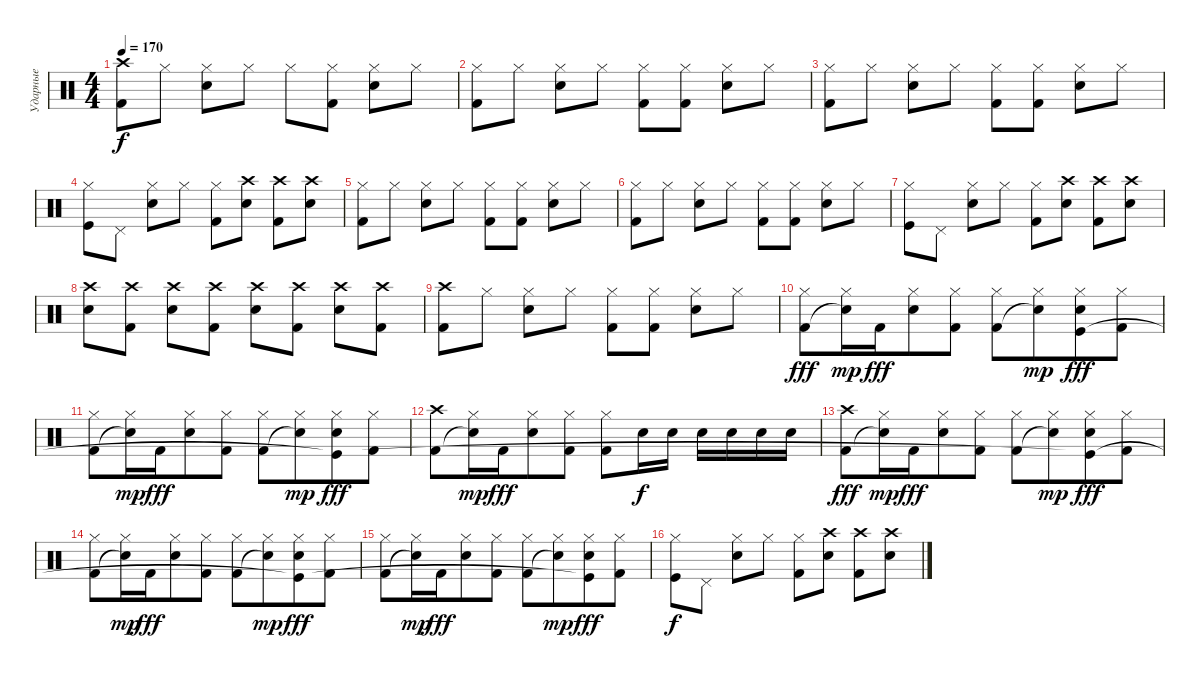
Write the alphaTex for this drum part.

\track ("Ударные" "Ударные") {instrument percussion}
\staff {score}
\articulation defaults
\ts (4 4)
\tempo 170
\clef neutral
\ks c
("Crash high (hit)" "Kick (hit) 2").8{dy f} "Hi-Hat (closed)".8 ("Hi-Hat (closed)" "Electric Snare (hit)").8 "Hi-Hat (closed)".8 "Hi-Hat (closed)".8 ("Hi-Hat (closed)" "Kick (hit) 2").8 ("Hi-Hat (closed)" "Electric Snare (hit)").8 "Hi-Hat (closed)".8 |
("Hi-Hat (closed)" "Kick (hit) 2").8 "Hi-Hat (closed)".8 ("Hi-Hat (closed)" "Electric Snare (hit)").8 "Hi-Hat (closed)".8 ("Hi-Hat (closed)" "Kick (hit) 2").8 ("Hi-Hat (closed)" "Kick (hit) 2").8 ("Hi-Hat (closed)" "Electric Snare (hit)").8 "Hi-Hat (closed)".8 |
("Hi-Hat (closed)" "Kick (hit) 2").8 "Hi-Hat (closed)".8 ("Hi-Hat (closed)" "Electric Snare (hit)").8 "Hi-Hat (closed)".8 ("Hi-Hat (closed)" "Kick (hit) 2").8 ("Hi-Hat (closed)" "Kick (hit) 2").8 ("Hi-Hat (closed)" "Electric Snare (hit)").8 "Hi-Hat (closed)".8 |
("Kick (hit)" "Hi-Hat (closed)").8 "Pedal Hi-Hat (hit)".8 ("Electric Snare (hit)" "Hi-Hat (closed)").8 "Hi-Hat (closed)".8 ("Kick (hit) 2" "Hi-Hat (closed)").8 ("Electric Snare (hit)" "Crash high (hit)").8 ("Kick (hit) 2" "Crash high (hit)").8 ("Electric Snare (hit)" "Crash high (hit)").8 |
("Hi-Hat (closed)" "Kick (hit) 2").8 "Hi-Hat (closed)".8 ("Hi-Hat (closed)" "Electric Snare (hit)").8 "Hi-Hat (closed)".8 ("Hi-Hat (closed)" "Kick (hit) 2").8 ("Hi-Hat (closed)" "Kick (hit) 2").8 ("Hi-Hat (closed)" "Electric Snare (hit)").8 "Hi-Hat (closed)".8 |
("Hi-Hat (closed)" "Kick (hit) 2").8 "Hi-Hat (closed)".8 ("Hi-Hat (closed)" "Electric Snare (hit)").8 "Hi-Hat (closed)".8 ("Hi-Hat (closed)" "Kick (hit) 2").8 ("Hi-Hat (closed)" "Kick (hit) 2").8 ("Hi-Hat (closed)" "Electric Snare (hit)").8 "Hi-Hat (closed)".8 |
("Kick (hit)" "Hi-Hat (closed)").8 "Pedal Hi-Hat (hit)".8 ("Electric Snare (hit)" "Hi-Hat (closed)").8 "Hi-Hat (closed)".8 ("Kick (hit) 2" "Hi-Hat (closed)").8 ("Electric Snare (hit)" "Crash high (hit)").8 ("Kick (hit) 2" "Crash high (hit)").8 ("Electric Snare (hit)" "Crash high (hit)").8 |
("Electric Snare (hit)" "Crash high (hit)").8 ("Kick (hit) 2" "Crash high (hit)").8 ("Electric Snare (hit)" "Crash high (hit)").8 ("Kick (hit) 2" "Crash high (hit)").8 ("Electric Snare (hit)" "Crash high (hit)").8 ("Kick (hit) 2" "Crash high (hit)").8 ("Electric Snare (hit)" "Crash high (hit)").8 ("Kick (hit) 2" "Crash high (hit)").8 |
("Crash high (hit)" "Kick (hit) 2").8 "Hi-Hat (closed)".8 ("Hi-Hat (closed)" "Electric Snare (hit)").8 "Hi-Hat (closed)".8 ("Hi-Hat (closed)" "Kick (hit) 2").8 ("Hi-Hat (closed)" "Kick (hit) 2").8 ("Hi-Hat (closed)" "Electric Snare (hit)").8 "Hi-Hat (closed)".8 |
("Hi-Hat (closed)" "Kick (hit) 2").8{dy fff} ("Hi-Hat (closed)" "Snare (hit)"{t}).16{dy mp} "Kick (hit) 2".16{dy fff beam merge} ("Hi-Hat (closed)" "Electric Snare (hit)").8 ("Hi-Hat (closed)" "Kick (hit) 2").8 ("Hi-Hat (closed)" "Kick (hit) 2").8 ("Hi-Hat (closed)" "Snare (hit)"{t}).8{dy mp beam merge} ("Hi-Hat (closed)" "Electric Snare (hit)" "Kick (hit)").8{dy fff} ("Hi-Hat (closed)" "Kick (hit) 2").8 |
("Hi-Hat (closed)" "Kick (hit) 2").8 ("Hi-Hat (closed)" "Snare (hit)"{t}).16{dy mp} "Kick (hit) 2".16{dy fff beam merge} ("Hi-Hat (closed)" "Electric Snare (hit)").8 ("Hi-Hat (closed)" "Kick (hit) 2").8 ("Hi-Hat (closed)" "Kick (hit) 2").8 ("Hi-Hat (closed)" "Snare (hit)"{t}).8{dy mp beam merge} ("Hi-Hat (closed)" "Electric Snare (hit)" "Kick (hit)"{t}).8{dy fff} ("Hi-Hat (closed)" "Kick (hit) 2").8 |
("Crash high (hit)" "Kick (hit) 2").8 ("Hi-Hat (closed)" "Snare (hit)"{t}).16{dy mp} "Kick (hit) 2".16{dy fff beam merge} ("Hi-Hat (closed)" "Electric Snare (hit)").8 ("Hi-Hat (closed)" "Kick (hit) 2").8 ("Hi-Hat (closed)" "Kick (hit) 2").8 "Electric Snare (hit)".16{dy f} "Electric Snare (hit)".16 "Electric Snare (hit)".16 "Electric Snare (hit)".16 "Electric Snare (hit)".16 "Electric Snare (hit)".16 |
("Crash high (hit)" "Kick (hit) 2").8{dy fff} ("Hi-Hat (closed)" "Snare (hit)"{t}).16{dy mp} "Kick (hit) 2".16{dy fff beam merge} ("Hi-Hat (closed)" "Electric Snare (hit)").8 ("Hi-Hat (closed)" "Kick (hit) 2").8 ("Hi-Hat (closed)" "Kick (hit) 2").8 ("Hi-Hat (closed)" "Snare (hit)"{t}).8{dy mp beam merge} ("Hi-Hat (closed)" "Electric Snare (hit)" "Kick (hit)"{t}).8{dy fff} ("Hi-Hat (closed)" "Kick (hit) 2").8 |
("Hi-Hat (closed)" "Kick (hit) 2").8 ("Hi-Hat (closed)" "Snare (hit)"{t}).16{dy mp} "Kick (hit) 2".16{dy fff beam merge} ("Hi-Hat (closed)" "Electric Snare (hit)").8 ("Hi-Hat (closed)" "Kick (hit) 2").8 ("Hi-Hat (closed)" "Kick (hit) 2").8 ("Hi-Hat (closed)" "Snare (hit)"{t}).8{dy mp beam merge} ("Hi-Hat (closed)" "Electric Snare (hit)" "Kick (hit)"{t}).8{dy fff} ("Hi-Hat (closed)" "Kick (hit) 2").8 |
("Hi-Hat (closed)" "Kick (hit) 2").8 ("Hi-Hat (closed)" "Snare (hit)"{t}).16{dy mp} "Kick (hit) 2".16{dy fff beam merge} ("Hi-Hat (closed)" "Electric Snare (hit)").8 ("Hi-Hat (closed)" "Kick (hit) 2").8 ("Hi-Hat (closed)" "Kick (hit) 2").8 ("Hi-Hat (closed)" "Snare (hit)"{t}).8{dy mp beam merge} ("Hi-Hat (closed)" "Electric Snare (hit)" "Kick (hit)"{t}).8{dy fff} ("Hi-Hat (closed)" "Kick (hit) 2").8 |
("Kick (hit)" "Hi-Hat (closed)").8{dy f} "Pedal Hi-Hat (hit)".8 ("Electric Snare (hit)" "Hi-Hat (closed)").8 "Hi-Hat (closed)".8 ("Kick (hit) 2" "Hi-Hat (closed)").8 ("Electric Snare (hit)" "Crash high (hit)").8 ("Kick (hit) 2" "Crash high (hit)").8 ("Electric Snare (hit)" "Crash high (hit)").8
